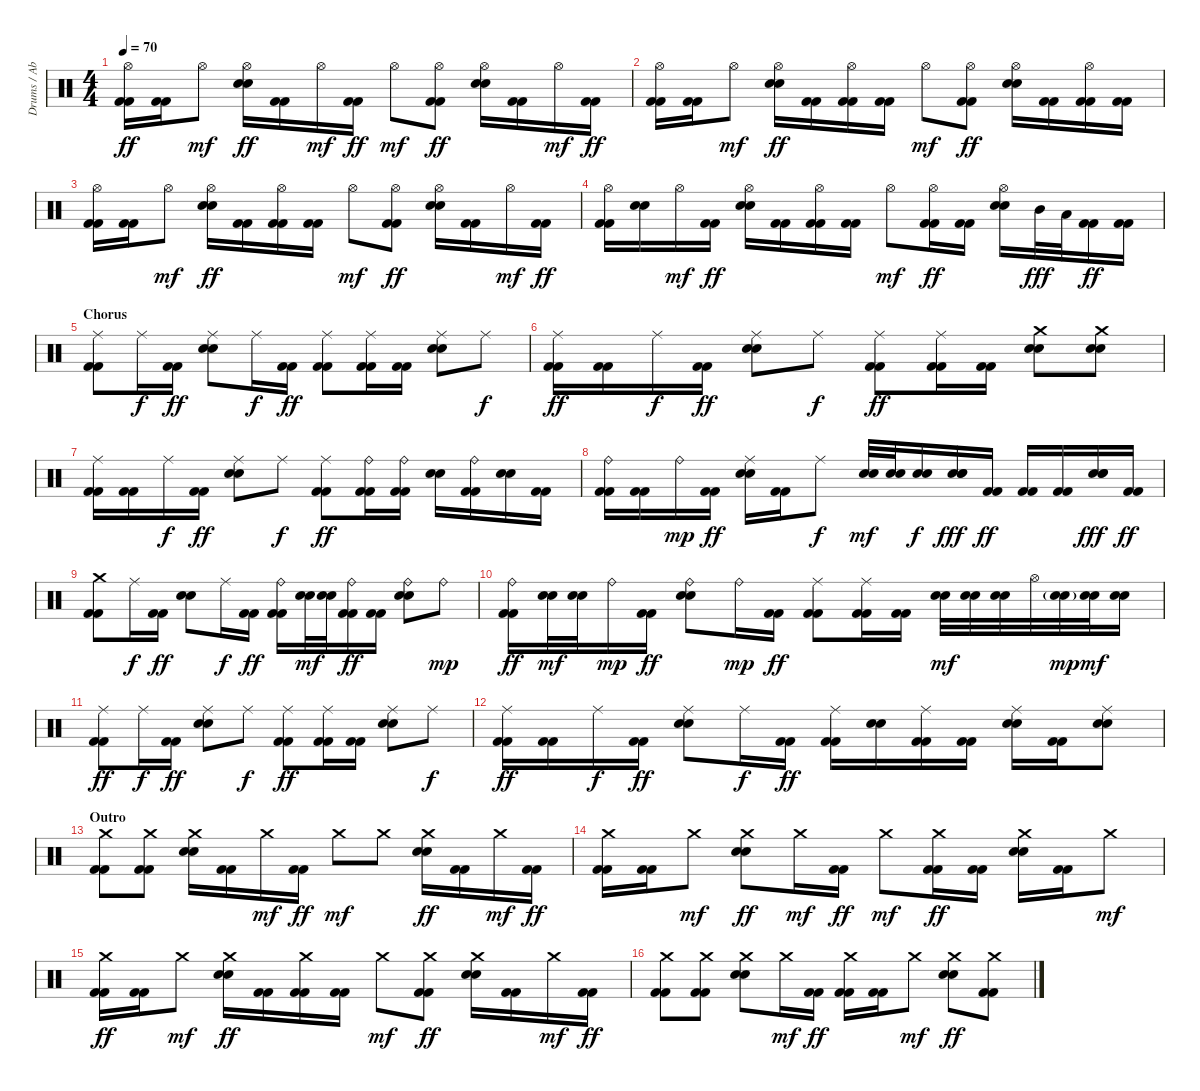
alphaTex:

\track ("Drums / Abe Cunningham" "Drums / Ab") {instrument percussion}
\staff {score}
\articulation defaults
\ts (4 4)
\tempo 70
\clef neutral
\ks c
("Hi-Hat (open)" "Kick (hit) 2" "Kick (hit) 2").16{dy ff} ("Kick (hit) 2" "Kick (hit) 2").16 "Hi-Hat (open)".8{dy mf} ("Hi-Hat (open)" "Electric Snare (hit)" "Electric Snare (hit)").16{dy ff} ("Kick (hit) 2" "Kick (hit) 2").16 "Hi-Hat (open)".16{dy mf} ("Kick (hit) 2" "Kick (hit) 2").16{dy ff} "Hi-Hat (open)".8{dy mf} ("Hi-Hat (open)" "Kick (hit) 2" "Kick (hit) 2").8{dy ff} ("Hi-Hat (open)" "Electric Snare (hit)" "Electric Snare (hit)").16 ("Kick (hit) 2" "Kick (hit) 2").16 "Hi-Hat (open)".16{dy mf} ("Kick (hit) 2" "Kick (hit) 2").16{dy ff} |
("Hi-Hat (open)" "Kick (hit) 2" "Kick (hit) 2").16 ("Kick (hit) 2" "Kick (hit) 2").16 "Hi-Hat (open)".8{dy mf} ("Hi-Hat (open)" "Electric Snare (hit)" "Electric Snare (hit)").16{dy ff} ("Kick (hit) 2" "Kick (hit) 2").16 ("Hi-Hat (open)" "Kick (hit) 2" "Kick (hit) 2").16 ("Kick (hit) 2" "Kick (hit) 2").16 "Hi-Hat (open)".8{dy mf} ("Hi-Hat (open)" "Kick (hit) 2" "Kick (hit) 2").8{dy ff} ("Hi-Hat (open)" "Electric Snare (hit)" "Electric Snare (hit)").16 ("Kick (hit) 2" "Kick (hit) 2").16 ("Hi-Hat (open)" "Kick (hit) 2" "Kick (hit) 2").16 ("Kick (hit) 2" "Kick (hit) 2").16 |
("Hi-Hat (open)" "Kick (hit) 2" "Kick (hit) 2").16 ("Kick (hit) 2" "Kick (hit) 2").16 "Hi-Hat (open)".8{dy mf} ("Hi-Hat (open)" "Electric Snare (hit)" "Electric Snare (hit)").16{dy ff} ("Kick (hit) 2" "Kick (hit) 2").16 ("Hi-Hat (open)" "Kick (hit) 2" "Kick (hit) 2").16 ("Kick (hit) 2" "Kick (hit) 2").16 "Hi-Hat (open)".8{dy mf} ("Hi-Hat (open)" "Kick (hit) 2" "Kick (hit) 2").8{dy ff} ("Hi-Hat (open)" "Electric Snare (hit)" "Electric Snare (hit)").16 ("Kick (hit) 2" "Kick (hit) 2").16 "Hi-Hat (open)".16{dy mf} ("Kick (hit) 2" "Kick (hit) 2").16{dy ff} |
("Hi-Hat (open)" "Kick (hit) 2" "Kick (hit) 2").16 ("Electric Snare (hit)" "Electric Snare (hit)").16 "Hi-Hat (open)".16{dy mf} ("Kick (hit) 2" "Kick (hit) 2").16{dy ff} ("Hi-Hat (open)" "Electric Snare (hit)" "Electric Snare (hit)").16 ("Kick (hit) 2" "Kick (hit) 2").16 ("Hi-Hat (open)" "Kick (hit) 2" "Kick (hit) 2").16 ("Kick (hit) 2" "Kick (hit) 2").16 "Hi-Hat (open)".8{dy mf} ("Hi-Hat (open)" "Kick (hit) 2" "Kick (hit) 2").16{dy ff} ("Kick (hit) 2" "Kick (hit) 2").16 ("Hi-Hat (open)" "Electric Snare (hit)" "Electric Snare (hit)").16 "Mid Tom (hit)".32{dy fff} "Low Tom (hit)".32 ("Kick (hit) 2" "Kick (hit) 2").16{dy ff} ("Kick (hit) 2" "Kick (hit) 2").16 |
\section ("" "Chorus")
("Ride (middle)" "Kick (hit) 2" "Kick (hit) 2").8 "Ride (middle)".16{dy f} ("Kick (hit) 2" "Kick (hit) 2").16{dy ff} ("Ride (middle)" "Electric Snare (hit)" "Electric Snare (hit)").8 "Ride (middle)".16{dy f} ("Kick (hit) 2" "Kick (hit) 2").16{dy ff} ("Ride (middle)" "Kick (hit) 2" "Kick (hit) 2").8 ("Ride (middle)" "Kick (hit) 2" "Kick (hit) 2").16 ("Kick (hit) 2" "Kick (hit) 2").16 ("Ride (middle)" "Electric Snare (hit)" "Electric Snare (hit)").8 "Ride (middle)".8{dy f} |
("Ride (middle)" "Kick (hit) 2" "Kick (hit) 2").16{dy ff} ("Kick (hit) 2" "Kick (hit) 2").16 "Ride (middle)".16{dy f} ("Kick (hit) 2" "Kick (hit) 2").16{dy ff} ("Ride (middle)" "Electric Snare (hit)" "Electric Snare (hit)").8 "Ride (middle)".8{dy f} ("Ride (middle)" "Kick (hit) 2" "Kick (hit) 2").8{dy ff} ("Ride (middle)" "Kick (hit) 2" "Kick (hit) 2").16 ("Kick (hit) 2" "Kick (hit) 2").16 ("Crash medium (hit)" "Electric Snare (hit)" "Electric Snare (hit)").8 ("Crash medium (hit)" "Electric Snare (hit)" "Electric Snare (hit)").8 |
("Ride (middle)" "Kick (hit) 2" "Kick (hit) 2").16 ("Kick (hit) 2" "Kick (hit) 2").16 "Ride (middle)".16{dy f} ("Kick (hit) 2" "Kick (hit) 2").16{dy ff} ("Ride (middle)" "Electric Snare (hit)" "Electric Snare (hit)").8 "Ride (middle)".8{dy f} ("Ride (middle)" "Kick (hit) 2" "Kick (hit) 2").8{dy ff} ("Ride (bell)" "Kick (hit) 2" "Kick (hit) 2").16 ("Ride (bell)" "Kick (hit) 2" "Kick (hit) 2").16 ("Electric Snare (hit)" "Electric Snare (hit)").16 ("Ride (bell)" "Kick (hit) 2" "Kick (hit) 2").16 ("Electric Snare (hit)" "Electric Snare (hit)").16 ("Kick (hit) 2" "Kick (hit) 2").16 |
("Ride (bell)" "Kick (hit) 2" "Kick (hit) 2").16 ("Kick (hit) 2" "Kick (hit) 2").16 "Ride (bell)".16{dy mp} ("Kick (hit) 2" "Kick (hit) 2").16{dy ff} ("Ride (middle)" "Electric Snare (hit)" "Electric Snare (hit)").16 ("Kick (hit) 2" "Kick (hit) 2").16 "Ride (middle)".8{dy f} ("Electric Snare (hit)" "Electric Snare (hit)").32{dy mf} ("Electric Snare (hit)" "Electric Snare (hit)").32 ("Electric Snare (hit)" "Electric Snare (hit)").16{dy f} ("Electric Snare (hit)" "Electric Snare (hit)" "Electric Snare (hit)").16{dy fff} ("Kick (hit) 2" "Kick (hit) 2").16{dy ff} ("Kick (hit) 2" "Kick (hit) 2").16 ("Kick (hit) 2" "Kick (hit) 2").16 ("Electric Snare (hit)" "Electric Snare (hit)" "Electric Snare (hit)").16{dy fff} ("Kick (hit) 2" "Kick (hit) 2").16{dy ff} |
("Crash medium (hit)" "Kick (hit) 2" "Kick (hit) 2").8 "Ride (middle)".16{dy f} ("Kick (hit) 2" "Kick (hit) 2").16{dy ff} ("Electric Snare (hit)" "Electric Snare (hit)").8 "Ride (middle)".16{dy f} ("Kick (hit) 2" "Kick (hit) 2").16{dy ff} ("Ride (bell)" "Kick (hit) 2" "Kick (hit) 2").16 ("Electric Snare (hit)" "Electric Snare (hit)").32{dy mf} ("Electric Snare (hit)" "Electric Snare (hit)").32 ("Ride (bell)" "Kick (hit) 2" "Kick (hit) 2").16{dy ff} ("Kick (hit) 2" "Kick (hit) 2").16 ("Ride (bell)" "Electric Snare (hit)" "Electric Snare (hit)").8 "Ride (bell)".8{dy mp} |
("Ride (bell)" "Kick (hit) 2" "Kick (hit) 2").16{dy ff} ("Electric Snare (hit)" "Electric Snare (hit)").32{dy mf} ("Electric Snare (hit)" "Electric Snare (hit)").32 "Ride (bell)".16{dy mp} ("Kick (hit) 2" "Kick (hit) 2").16{dy ff} ("Ride (bell)" "Electric Snare (hit)" "Electric Snare (hit)").8 "Ride (bell)".16{dy mp} ("Kick (hit) 2" "Kick (hit) 2").16{dy ff} ("Ride (middle)" "Kick (hit) 2" "Kick (hit) 2").8 ("Ride (middle)" "Kick (hit) 2" "Kick (hit) 2").16 ("Kick (hit) 2" "Kick (hit) 2").16 ("Electric Snare (hit)" "Electric Snare (hit)").32{dy mf} ("Electric Snare (hit)" "Electric Snare (hit)").32 ("Electric Snare (hit)" "Electric Snare (hit)").32 "Hi-Hat (open)".32 ("Electric Snare (hit)"{g} "Electric Snare (hit)"{g}).32{dy mp} ("Electric Snare (hit)" "Electric Snare (hit)").32{dy mf} ("Electric Snare (hit)" "Electric Snare (hit)").16 |
("Ride (middle)" "Kick (hit) 2" "Kick (hit) 2").8{dy ff} "Ride (middle)".16{dy f} ("Kick (hit) 2" "Kick (hit) 2").16{dy ff} ("Ride (middle)" "Electric Snare (hit)" "Electric Snare (hit)").8 "Ride (middle)".8{dy f} ("Ride (middle)" "Kick (hit) 2" "Kick (hit) 2").8{dy ff} ("Ride (middle)" "Kick (hit) 2" "Kick (hit) 2").16 ("Kick (hit) 2" "Kick (hit) 2").16 ("Ride (middle)" "Electric Snare (hit)" "Electric Snare (hit)").8 "Ride (middle)".8{dy f} |
("Ride (middle)" "Kick (hit) 2" "Kick (hit) 2").16{dy ff} ("Kick (hit) 2" "Kick (hit) 2").16 "Ride (middle)".16{dy f} ("Kick (hit) 2" "Kick (hit) 2").16{dy ff} ("Ride (middle)" "Electric Snare (hit)" "Electric Snare (hit)").8 "Ride (middle)".16{dy f} ("Kick (hit) 2" "Kick (hit) 2").16{dy ff} ("Ride (middle)" "Kick (hit) 2" "Kick (hit) 2").16 ("Electric Snare (hit)" "Electric Snare (hit)").16 ("Ride (middle)" "Kick (hit) 2" "Kick (hit) 2").16 ("Kick (hit) 2" "Kick (hit) 2").16 ("Ride (middle)" "Electric Snare (hit)" "Electric Snare (hit)").16 ("Kick (hit) 2" "Kick (hit) 2").16 ("Ride (middle)" "Electric Snare (hit)" "Electric Snare (hit)").8 |
\section ("" "Outro")
("Crash medium (hit)" "Kick (hit) 2" "Kick (hit) 2").8 ("Crash medium (hit)" "Kick (hit) 2" "Kick (hit) 2").8 ("Crash medium (hit)" "Electric Snare (hit)" "Electric Snare (hit)").16 ("Kick (hit) 2" "Kick (hit) 2").16 "Crash medium (hit)".16{dy mf} ("Kick (hit) 2" "Kick (hit) 2").16{dy ff} "Crash medium (hit)".8{dy mf} "Crash medium (hit)".8 ("Crash medium (hit)" "Electric Snare (hit)" "Electric Snare (hit)").16{dy ff} ("Kick (hit) 2" "Kick (hit) 2").16 "Crash medium (hit)".16{dy mf} ("Kick (hit) 2" "Kick (hit) 2").16{dy ff} |
("Crash medium (hit)" "Kick (hit) 2" "Kick (hit) 2").16 ("Kick (hit) 2" "Kick (hit) 2").16 "Crash medium (hit)".8{dy mf} ("Crash medium (hit)" "Electric Snare (hit)" "Electric Snare (hit)").8{dy ff} "Crash medium (hit)".16{dy mf} ("Kick (hit) 2" "Kick (hit) 2").16{dy ff} "Crash medium (hit)".8{dy mf} ("Crash medium (hit)" "Kick (hit) 2" "Kick (hit) 2").16{dy ff} ("Kick (hit) 2" "Kick (hit) 2").16 ("Crash medium (hit)" "Electric Snare (hit)" "Electric Snare (hit)").16 ("Kick (hit) 2" "Kick (hit) 2").16 "Crash medium (hit)".8{dy mf} |
("Crash medium (hit)" "Kick (hit) 2" "Kick (hit) 2").16{dy ff} ("Kick (hit) 2" "Kick (hit) 2").16 "Crash medium (hit)".8{dy mf} ("Crash medium (hit)" "Electric Snare (hit)" "Electric Snare (hit)").16{dy ff} ("Kick (hit) 2" "Kick (hit) 2").16 ("Crash medium (hit)" "Kick (hit) 2" "Kick (hit) 2").16 ("Kick (hit) 2" "Kick (hit) 2").16 "Crash medium (hit)".8{dy mf} ("Crash medium (hit)" "Kick (hit) 2" "Kick (hit) 2").8{dy ff} ("Crash medium (hit)" "Electric Snare (hit)" "Electric Snare (hit)").16 ("Kick (hit) 2" "Kick (hit) 2").16 "Crash medium (hit)".16{dy mf} ("Kick (hit) 2" "Kick (hit) 2").16{dy ff} |
("Crash medium (hit)" "Kick (hit) 2" "Kick (hit) 2").8 ("Crash medium (hit)" "Kick (hit) 2" "Kick (hit) 2").8 ("Crash medium (hit)" "Electric Snare (hit)" "Electric Snare (hit)").8 "Crash medium (hit)".16{dy mf} ("Kick (hit) 2" "Kick (hit) 2").16{dy ff} ("Crash medium (hit)" "Kick (hit) 2" "Kick (hit) 2").16 ("Kick (hit) 2" "Kick (hit) 2").16 "Crash medium (hit)".8{dy mf} ("Crash medium (hit)" "Electric Snare (hit)" "Electric Snare (hit)").8{dy ff} ("Crash medium (hit)" "Kick (hit) 2" "Kick (hit) 2").8
